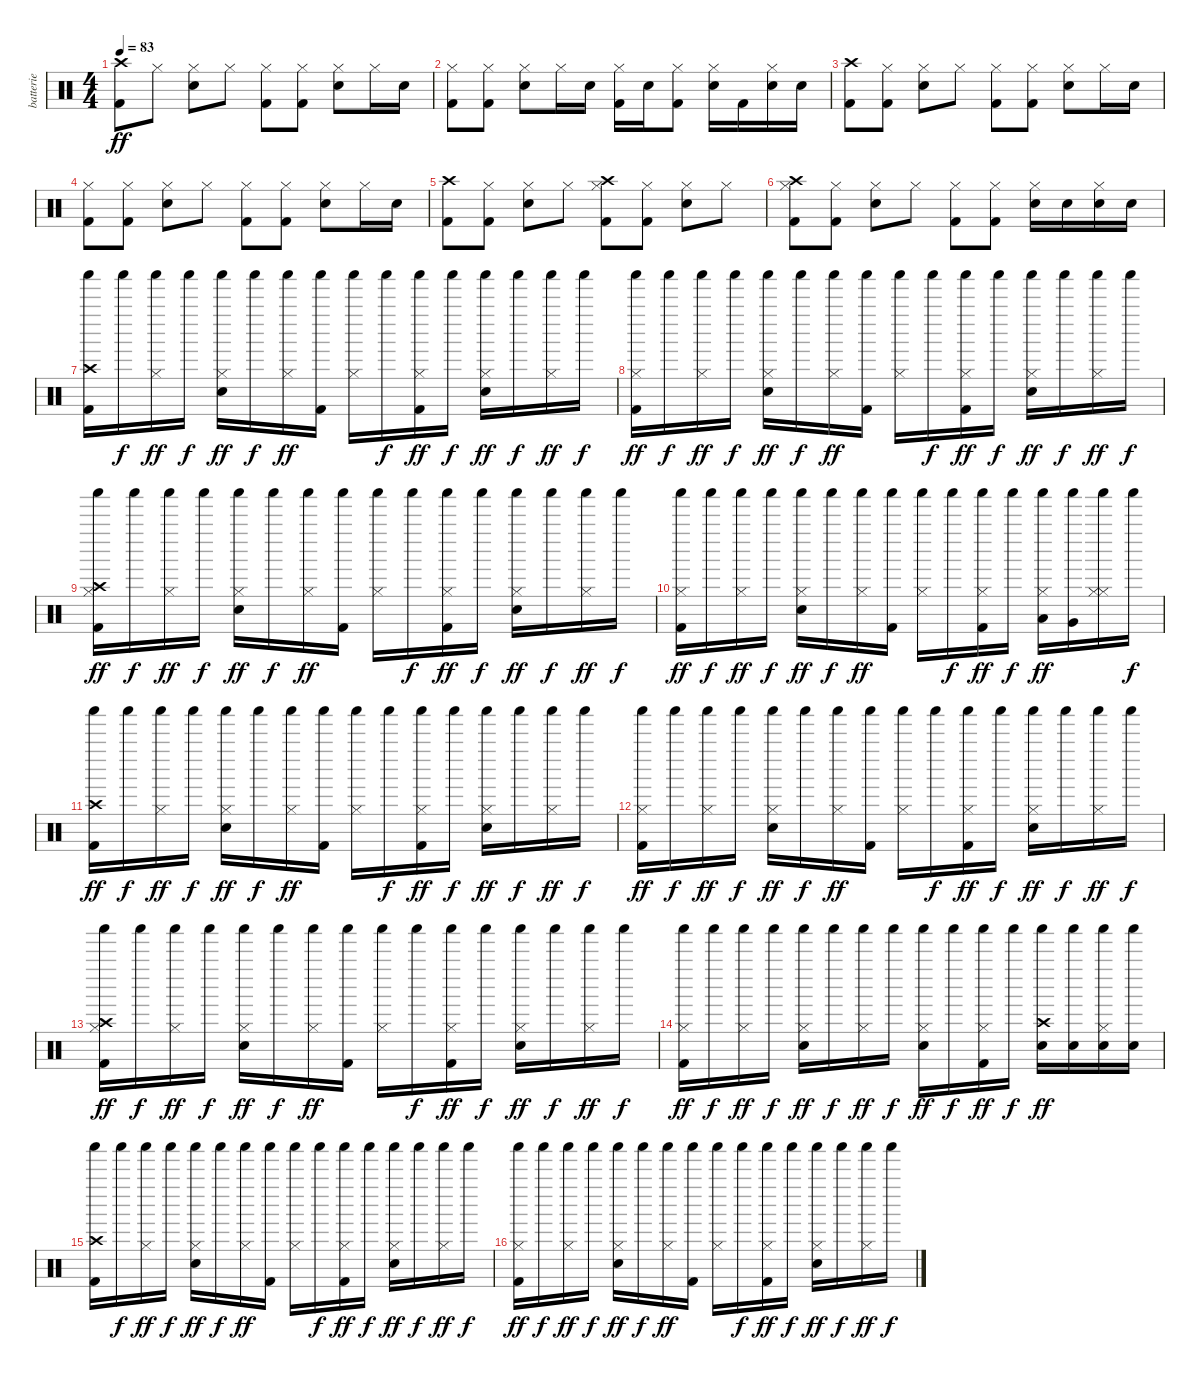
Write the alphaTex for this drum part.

\track ("batterie" "batterie") {instrument percussion}
\staff {score}
\articulation defaults
\ts (4 4)
\tempo 83
\clef neutral
\ks c
("Kick (hit) 2" "Crash high (hit)").8{dy ff} "Hi-Hat (closed)".8 ("Snare (hit) 2" "Hi-Hat (closed)").8 "Hi-Hat (closed)".8 ("Kick (hit) 2" "Hi-Hat (closed)").8 ("Kick (hit) 2" "Hi-Hat (closed)").8 ("Snare (hit) 2" "Hi-Hat (closed)").8 "Hi-Hat (closed)".16 "Snare (hit) 2".16 |
("Kick (hit) 2" "Hi-Hat (closed)").8 ("Kick (hit) 2" "Hi-Hat (closed)").8 ("Snare (hit) 2" "Hi-Hat (closed)").8 "Hi-Hat (closed)".16 "Snare (hit) 2".16 ("Kick (hit) 2" "Hi-Hat (closed)").16 "Snare (hit) 2".16 ("Kick (hit) 2" "Hi-Hat (closed)").8 ("Snare (hit) 2" "Hi-Hat (closed)").16 "Kick (hit) 2".16 ("Snare (hit) 2" "Hi-Hat (closed)").16 "Snare (hit) 2".16 |
("Kick (hit) 2" "Crash high (hit)").8 ("Kick (hit) 2" "Hi-Hat (closed)").8 ("Snare (hit) 2" "Hi-Hat (closed)").8 "Hi-Hat (closed)".8 ("Kick (hit) 2" "Hi-Hat (closed)").8 ("Kick (hit) 2" "Hi-Hat (closed)").8 ("Snare (hit) 2" "Hi-Hat (closed)").8 "Hi-Hat (closed)".16 "Snare (hit) 2".16 |
("Kick (hit) 2" "Hi-Hat (closed)").8 ("Kick (hit) 2" "Hi-Hat (closed)").8 ("Snare (hit) 2" "Hi-Hat (closed)").8 "Hi-Hat (closed)".8 ("Kick (hit) 2" "Hi-Hat (closed)").8 ("Kick (hit) 2" "Hi-Hat (closed)").8 ("Snare (hit) 2" "Hi-Hat (closed)").8 "Hi-Hat (closed)".16 "Snare (hit) 2".16 |
("Kick (hit) 2" "Crash high (hit)").8 ("Kick (hit) 2" "Hi-Hat (closed)").8 ("Snare (hit) 2" "Hi-Hat (closed)").8 "Hi-Hat (closed)".8 ("Kick (hit) 2" "Hi-Hat (closed)" "Crash high (hit)").8 ("Kick (hit) 2" "Hi-Hat (closed)").8 ("Snare (hit) 2" "Hi-Hat (closed)").8 "Hi-Hat (closed)".8 |
("Kick (hit) 2" "Hi-Hat (closed)" "Crash high (hit)").8 ("Kick (hit) 2" "Hi-Hat (closed)").8 ("Snare (hit) 2" "Hi-Hat (closed)").8 "Hi-Hat (closed)".8 ("Kick (hit) 2" "Hi-Hat (closed)").8 ("Kick (hit) 2" "Hi-Hat (closed)").8 ("Snare (hit) 2" "Hi-Hat (closed)").16 "Snare (hit) 2".16 ("Snare (hit) 2" "Hi-Hat (closed)").16 "Snare (hit) 2".16 |
("Kick (hit) 2" "Crash high (hit)" "Shaker (hit)").16 "Shaker (hit)".16{dy f} ("Hi-Hat (closed)" "Shaker (hit)").16{dy ff} "Shaker (hit)".16{dy f} ("Snare (hit) 2" "Hi-Hat (closed)" "Shaker (hit)").16{dy ff} "Shaker (hit)".16{dy f} ("Hi-Hat (closed)" "Shaker (hit)").16{dy ff} ("Kick (hit) 2" "Shaker (hit)").16 ("Hi-Hat (closed)" "Shaker (hit)").16 "Shaker (hit)".16{dy f} ("Kick (hit) 2" "Hi-Hat (closed)" "Shaker (hit)").16{dy ff} "Shaker (hit)".16{dy f} ("Snare (hit) 2" "Hi-Hat (closed)" "Shaker (hit)").16{dy ff} "Shaker (hit)".16{dy f} ("Hi-Hat (closed)" "Shaker (hit)").16{dy ff} "Shaker (hit)".16{dy f} |
("Kick (hit) 2" "Hi-Hat (closed)" "Shaker (hit)").16{dy ff} "Shaker (hit)".16{dy f} ("Hi-Hat (closed)" "Shaker (hit)").16{dy ff} "Shaker (hit)".16{dy f} ("Snare (hit) 2" "Hi-Hat (closed)" "Shaker (hit)").16{dy ff} "Shaker (hit)".16{dy f} ("Hi-Hat (closed)" "Shaker (hit)").16{dy ff} ("Kick (hit) 2" "Shaker (hit)").16 ("Hi-Hat (closed)" "Shaker (hit)").16 "Shaker (hit)".16{dy f} ("Kick (hit) 2" "Hi-Hat (closed)" "Shaker (hit)").16{dy ff} "Shaker (hit)".16{dy f} ("Snare (hit) 2" "Hi-Hat (closed)" "Shaker (hit)").16{dy ff} "Shaker (hit)".16{dy f} ("Hi-Hat (closed)" "Shaker (hit)").16{dy ff} "Shaker (hit)".16{dy f} |
("Kick (hit) 2" "Hi-Hat (closed)" "Crash high (hit)" "Shaker (hit)").16{dy ff} "Shaker (hit)".16{dy f} ("Hi-Hat (closed)" "Shaker (hit)").16{dy ff} "Shaker (hit)".16{dy f} ("Snare (hit) 2" "Hi-Hat (closed)" "Shaker (hit)").16{dy ff} "Shaker (hit)".16{dy f} ("Hi-Hat (closed)" "Shaker (hit)").16{dy ff} ("Kick (hit) 2" "Shaker (hit)").16 ("Hi-Hat (closed)" "Shaker (hit)").16 "Shaker (hit)".16{dy f} ("Kick (hit) 2" "Hi-Hat (closed)" "Shaker (hit)").16{dy ff} "Shaker (hit)".16{dy f} ("Snare (hit) 2" "Hi-Hat (closed)" "Shaker (hit)").16{dy ff} "Shaker (hit)".16{dy f} ("Hi-Hat (closed)" "Shaker (hit)").16{dy ff} "Shaker (hit)".16{dy f} |
("Kick (hit) 2" "Hi-Hat (closed)" "Shaker (hit)").16{dy ff} "Shaker (hit)".16{dy f} ("Hi-Hat (closed)" "Shaker (hit)").16{dy ff} "Shaker (hit)".16{dy f} ("Snare (hit) 2" "Hi-Hat (closed)" "Shaker (hit)").16{dy ff} "Shaker (hit)".16{dy f} ("Hi-Hat (closed)" "Shaker (hit)").16{dy ff} ("Kick (hit) 2" "Shaker (hit)").16 ("Hi-Hat (closed)" "Shaker (hit)").16 "Shaker (hit)".16{dy f} ("Kick (hit) 2" "Hi-Hat (closed)" "Shaker (hit)").16{dy ff} "Shaker (hit)".16{dy f} ("Hi-Hat (closed)" "Low Tom (hit)" "Shaker (hit)").16{dy ff} ("Very Low Tom (hit)" "Shaker (hit)").16 ("Hi-Hat (closed)" "Hi-Hat (closed)" "Shaker (hit)").16 "Shaker (hit)".16{dy f} |
("Kick (hit) 2" "Crash high (hit)" "Shaker (hit)").16{dy ff} "Shaker (hit)".16{dy f} ("Hi-Hat (closed)" "Shaker (hit)").16{dy ff} "Shaker (hit)".16{dy f} ("Snare (hit) 2" "Hi-Hat (closed)" "Shaker (hit)").16{dy ff} "Shaker (hit)".16{dy f} ("Hi-Hat (closed)" "Shaker (hit)").16{dy ff} ("Kick (hit) 2" "Shaker (hit)").16 ("Hi-Hat (closed)" "Shaker (hit)").16 "Shaker (hit)".16{dy f} ("Kick (hit) 2" "Hi-Hat (closed)" "Shaker (hit)").16{dy ff} "Shaker (hit)".16{dy f} ("Snare (hit) 2" "Hi-Hat (closed)" "Shaker (hit)").16{dy ff} "Shaker (hit)".16{dy f} ("Hi-Hat (closed)" "Shaker (hit)").16{dy ff} "Shaker (hit)".16{dy f} |
("Kick (hit) 2" "Hi-Hat (closed)" "Shaker (hit)").16{dy ff} "Shaker (hit)".16{dy f} ("Hi-Hat (closed)" "Shaker (hit)").16{dy ff} "Shaker (hit)".16{dy f} ("Snare (hit) 2" "Hi-Hat (closed)" "Shaker (hit)").16{dy ff} "Shaker (hit)".16{dy f} ("Hi-Hat (closed)" "Shaker (hit)").16{dy ff} ("Kick (hit) 2" "Shaker (hit)").16 ("Hi-Hat (closed)" "Shaker (hit)").16 "Shaker (hit)".16{dy f} ("Kick (hit) 2" "Hi-Hat (closed)" "Shaker (hit)").16{dy ff} "Shaker (hit)".16{dy f} ("Snare (hit) 2" "Hi-Hat (closed)" "Shaker (hit)").16{dy ff} "Shaker (hit)".16{dy f} ("Hi-Hat (closed)" "Shaker (hit)").16{dy ff} "Shaker (hit)".16{dy f} |
("Kick (hit) 2" "Hi-Hat (closed)" "Crash high (hit)" "Shaker (hit)").16{dy ff} "Shaker (hit)".16{dy f} ("Hi-Hat (closed)" "Shaker (hit)").16{dy ff} "Shaker (hit)".16{dy f} ("Snare (hit) 2" "Hi-Hat (closed)" "Shaker (hit)").16{dy ff} "Shaker (hit)".16{dy f} ("Hi-Hat (closed)" "Shaker (hit)").16{dy ff} ("Kick (hit) 2" "Shaker (hit)").16 ("Hi-Hat (closed)" "Shaker (hit)").16 "Shaker (hit)".16{dy f} ("Kick (hit) 2" "Hi-Hat (closed)" "Shaker (hit)").16{dy ff} "Shaker (hit)".16{dy f} ("Snare (hit) 2" "Hi-Hat (closed)" "Shaker (hit)").16{dy ff} "Shaker (hit)".16{dy f} ("Hi-Hat (closed)" "Shaker (hit)").16{dy ff} "Shaker (hit)".16{dy f} |
("Kick (hit) 2" "Hi-Hat (closed)" "Shaker (hit)").16{dy ff} "Shaker (hit)".16{dy f} ("Hi-Hat (closed)" "Shaker (hit)").16{dy ff} "Shaker (hit)".16{dy f} ("Snare (hit) 2" "Hi-Hat (closed)" "Shaker (hit)").16{dy ff} "Shaker (hit)".16{dy f} ("Hi-Hat (closed)" "Shaker (hit)").16{dy ff} "Shaker (hit)".16{dy f} ("Snare (hit) 2" "Hi-Hat (closed)" "Shaker (hit)").16{dy ff} "Shaker (hit)".16{dy f} ("Kick (hit) 2" "Hi-Hat (closed)" "Shaker (hit)").16{dy ff} "Shaker (hit)".16{dy f} ("Snare (hit) 2" "Crash high (hit)" "Shaker (hit)").16{dy ff} ("Snare (hit) 2" "Shaker (hit)").16 ("Snare (hit) 2" "Hi-Hat (closed)" "Shaker (hit)").16 ("Snare (hit) 2" "Shaker (hit)").16 |
("Kick (hit) 2" "Crash high (hit)" "Shaker (hit)").16 "Shaker (hit)".16{dy f} ("Hi-Hat (closed)" "Shaker (hit)").16{dy ff} "Shaker (hit)".16{dy f} ("Snare (hit) 2" "Hi-Hat (closed)" "Shaker (hit)").16{dy ff} "Shaker (hit)".16{dy f} ("Hi-Hat (closed)" "Shaker (hit)").16{dy ff} ("Kick (hit) 2" "Shaker (hit)").16 ("Hi-Hat (closed)" "Shaker (hit)").16 "Shaker (hit)".16{dy f} ("Kick (hit) 2" "Hi-Hat (closed)" "Shaker (hit)").16{dy ff} "Shaker (hit)".16{dy f} ("Snare (hit) 2" "Hi-Hat (closed)" "Shaker (hit)").16{dy ff} "Shaker (hit)".16{dy f} ("Hi-Hat (closed)" "Shaker (hit)").16{dy ff} "Shaker (hit)".16{dy f} |
("Kick (hit) 2" "Hi-Hat (closed)" "Shaker (hit)").16{dy ff} "Shaker (hit)".16{dy f} ("Hi-Hat (closed)" "Shaker (hit)").16{dy ff} "Shaker (hit)".16{dy f} ("Snare (hit) 2" "Hi-Hat (closed)" "Shaker (hit)").16{dy ff} "Shaker (hit)".16{dy f} ("Hi-Hat (closed)" "Shaker (hit)").16{dy ff} ("Kick (hit) 2" "Shaker (hit)").16 ("Hi-Hat (closed)" "Shaker (hit)").16 "Shaker (hit)".16{dy f} ("Kick (hit) 2" "Hi-Hat (closed)" "Shaker (hit)").16{dy ff} "Shaker (hit)".16{dy f} ("Snare (hit) 2" "Hi-Hat (closed)" "Shaker (hit)").16{dy ff} "Shaker (hit)".16{dy f} ("Hi-Hat (closed)" "Shaker (hit)").16{dy ff} "Shaker (hit)".16{dy f}
